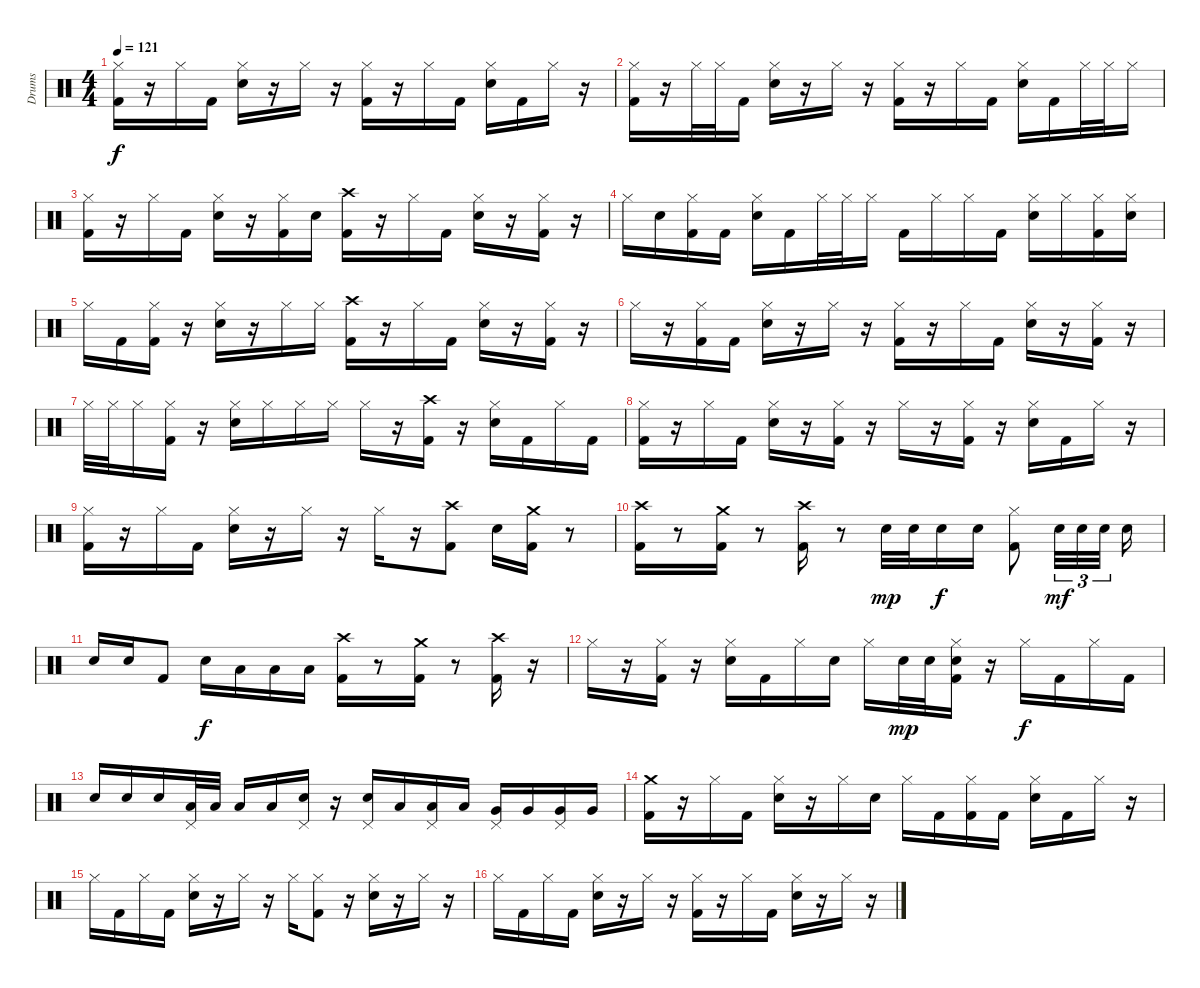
\track ("Drums" "Drums") {instrument percussion}
\staff {score}
\articulation defaults
\ts (4 4)
\tempo 121
\clef neutral
\ks c
("Hi-Hat (closed)" "Kick (hit) 2").16{dy f} r.16 "Hi-Hat (closed)".16 "Kick (hit) 2".16 ("Hi-Hat (closed)" "Snare (hit) 2").16 r.16 "Hi-Hat (closed)".16 r.16 ("Hi-Hat (closed)" "Kick (hit) 2").16 r.16 "Hi-Hat (closed)".16 "Kick (hit) 2".16 ("Hi-Hat (closed)" "Snare (hit) 2").16 "Kick (hit) 2".16 "Hi-Hat (closed)".16 r.16 |
("Hi-Hat (closed)" "Kick (hit) 2").16 r.16 "Hi-Hat (closed)".32 "Hi-Hat (closed)".32 "Kick (hit) 2".16 ("Hi-Hat (closed)" "Snare (hit) 2").16 r.16 "Hi-Hat (closed)".16 r.16 ("Hi-Hat (closed)" "Kick (hit) 2").16 r.16 "Hi-Hat (closed)".16 "Kick (hit) 2".16 ("Hi-Hat (closed)" "Snare (hit) 2").16 "Kick (hit) 2".16 "Hi-Hat (closed)".32 "Hi-Hat (closed)".32 "Hi-Hat (closed)".16 |
("Hi-Hat (closed)" "Kick (hit) 2").16 r.16 "Hi-Hat (closed)".16 "Kick (hit) 2".16 ("Hi-Hat (closed)" "Snare (hit) 2").16 r.16 ("Hi-Hat (closed)" "Kick (hit) 2").16 "Snare (hit) 2".16 ("Crash high (hit)" "Kick (hit) 2").16 r.16 "Hi-Hat (closed)".16 "Kick (hit) 2".16 ("Hi-Hat (closed)" "Snare (hit) 2").16 r.16 ("Hi-Hat (closed)" "Kick (hit) 2").16 r.16 |
"Hi-Hat (closed)".16 "Snare (hit) 2".16 ("Hi-Hat (closed)" "Kick (hit) 2").16 "Kick (hit) 2".16 ("Hi-Hat (closed)" "Snare (hit) 2").16 "Kick (hit) 2".16 "Hi-Hat (closed)".32 "Hi-Hat (closed)".32 "Hi-Hat (closed)".16 "Kick (hit) 2".16 "Hi-Hat (closed)".16 "Hi-Hat (closed)".16 "Kick (hit) 2".16 ("Hi-Hat (closed)" "Snare (hit) 2").16 "Hi-Hat (closed)".16 ("Hi-Hat (closed)" "Kick (hit) 2").16 ("Hi-Hat (closed)" "Snare (hit) 2").16 |
"Hi-Hat (closed)".16 "Kick (hit) 2".16 ("Hi-Hat (closed)" "Kick (hit) 2").16 r.16 ("Hi-Hat (closed)" "Snare (hit) 2").16 r.16 "Hi-Hat (closed)".16 "Hi-Hat (closed)".16 ("Crash high (hit)" "Kick (hit) 2").16 r.16 "Hi-Hat (closed)".16 "Kick (hit) 2".16 ("Hi-Hat (closed)" "Snare (hit) 2").16 r.16 ("Hi-Hat (closed)" "Kick (hit) 2").16 r.16 |
"Hi-Hat (closed)".16 r.16 ("Hi-Hat (closed)" "Kick (hit) 2").16 "Kick (hit) 2".16 ("Hi-Hat (closed)" "Snare (hit) 2").16 r.16 "Hi-Hat (closed)".16 r.16 ("Hi-Hat (closed)" "Kick (hit) 2").16 r.16 "Hi-Hat (closed)".16 "Kick (hit) 2".16 ("Hi-Hat (closed)" "Snare (hit) 2").16 r.16 ("Hi-Hat (closed)" "Kick (hit) 2").16 r.16 |
"Hi-Hat (closed)".32 "Hi-Hat (closed)".32 "Hi-Hat (closed)".16 ("Hi-Hat (closed)" "Kick (hit) 2").16 r.16 ("Hi-Hat (closed)" "Snare (hit) 2").16 "Hi-Hat (closed)".16 "Hi-Hat (closed)".16 "Hi-Hat (closed)".16 "Hi-Hat (closed)".16 r.16 ("Crash high (hit)" "Kick (hit) 2").16 r.16 ("Hi-Hat (closed)" "Snare (hit) 2").16 "Kick (hit) 2".16 "Hi-Hat (closed)".16 "Kick (hit) 2".16 |
("Hi-Hat (closed)" "Kick (hit) 2").16 r.16 "Hi-Hat (closed)".16 "Kick (hit) 2".16 ("Hi-Hat (closed)" "Snare (hit) 2").16 r.16 ("Hi-Hat (closed)" "Kick (hit) 2").16 r.16 "Hi-Hat (closed)".16 r.16 ("Hi-Hat (closed)" "Kick (hit) 2").16 r.16 ("Hi-Hat (closed)" "Snare (hit) 2").16 "Kick (hit) 2".16 "Hi-Hat (closed)".16 r.16 |
("Hi-Hat (closed)" "Kick (hit) 2").16 r.16 "Hi-Hat (closed)".16 "Kick (hit) 2".16 ("Hi-Hat (closed)" "Snare (hit) 2").16 r.16 "Hi-Hat (closed)".16 r.16 "Hi-Hat (closed)".16 r.16 ("Crash high (hit)" "Kick (hit) 2").8 "Snare (hit) 2".16 ("Crash medium (hit)" "Kick (hit) 2").16 r.8 |
("Crash high (hit)" "Kick (hit) 2").16 r.8 ("Crash medium (hit)" "Kick (hit) 2").16 r.8 ("Crash high (hit)" "Kick (hit) 2").16 r.8 "Snare (hit) 2".32{dy mp} "Snare (hit) 2".32 "Snare (hit) 2".16{dy f} "Snare (hit) 2".16 ("Hi-Hat (closed)" "Kick (hit) 2").8 "Snare (hit) 2".32{tu (3 2) dy mf} "Snare (hit) 2".32{tu (3 2)} "Snare (hit) 2".32{tu (3 2) beam splitsecondary} "Snare (hit) 2".16 |
"Snare (hit) 2".16 "Snare (hit) 2".16 "Kick (hit) 2".8 "Snare (hit) 2".16{dy f} "Low Tom (hit)".16 "Low Tom (hit)".16 "Low Tom (hit)".16 ("Crash high (hit)" "Kick (hit) 2").16 r.8 ("Crash medium (hit)" "Kick (hit) 2").16 r.8 ("Crash high (hit)" "Kick (hit) 2").16 r.16 |
"Hi-Hat (closed)".16 r.16 ("Hi-Hat (closed)" "Kick (hit) 2").16 r.16 ("Hi-Hat (closed)" "Snare (hit) 2").16 "Kick (hit) 2".16 "Hi-Hat (closed)".16 "Snare (hit) 2".16 "Hi-Hat (closed)".16 "Snare (hit) 2".32{dy mp} "Snare (hit) 2".32 ("Hi-Hat (closed)" "Snare (hit) 2" "Kick (hit) 2").16 r.16 "Hi-Hat (closed)".16{dy f} "Kick (hit) 2".16 "Hi-Hat (closed)".16 "Kick (hit) 2".16 |
"Snare (hit) 2".16 "Snare (hit) 2".16 "Snare (hit) 2".16 ("Pedal Hi-Hat (hit)" "Low Tom (hit)").32 "Low Tom (hit)".32 "Low Tom (hit)".16 "Low Tom (hit)".16 ("Pedal Hi-Hat (hit)" "Snare (hit) 2").16 r.16 ("Pedal Hi-Hat (hit)" "Snare (hit) 2").16 "Low Tom (hit)".16 ("Pedal Hi-Hat (hit)" "Low Tom (hit)").16 "Low Tom (hit)".16 ("Pedal Hi-Hat (hit)" "Very Low Tom (hit)").16 "Very Low Tom (hit)".16 ("Pedal Hi-Hat (hit)" "Very Low Tom (hit)").16 "Very Low Tom (hit)".16 |
("Crash medium (hit)" "Kick (hit) 2").16 r.16 "Hi-Hat (closed)".16 "Kick (hit) 2".16 ("Hi-Hat (closed)" "Snare (hit) 2").16 r.16 "Hi-Hat (closed)".16 "Snare (hit) 2".16 "Hi-Hat (closed)".16 "Kick (hit) 2".16 ("Hi-Hat (closed)" "Kick (hit) 2").16 "Kick (hit) 2".16 ("Hi-Hat (closed)" "Snare (hit) 2").16 "Kick (hit) 2".16 "Hi-Hat (closed)".16 r.16 |
"Hi-Hat (closed)".16 "Kick (hit) 2".16 "Hi-Hat (closed)".16 "Kick (hit) 2".16 ("Hi-Hat (closed)" "Snare (hit) 2").16 r.16 "Hi-Hat (closed)".16 r.16 "Hi-Hat (closed)".16 ("Hi-Hat (closed)" "Kick (hit) 2").8 r.16 ("Hi-Hat (closed)" "Snare (hit) 2").16 r.16 "Hi-Hat (closed)".16 r.16 |
"Hi-Hat (closed)".16 "Kick (hit) 2".16 "Hi-Hat (closed)".16 "Kick (hit) 2".16 ("Hi-Hat (closed)" "Snare (hit) 2").16 r.16 "Hi-Hat (closed)".16 r.16 ("Hi-Hat (closed)" "Kick (hit) 2").16 r.16 "Hi-Hat (closed)".16 "Kick (hit) 2".16 ("Hi-Hat (closed)" "Snare (hit) 2").16 r.16 "Hi-Hat (closed)".16 r.16
